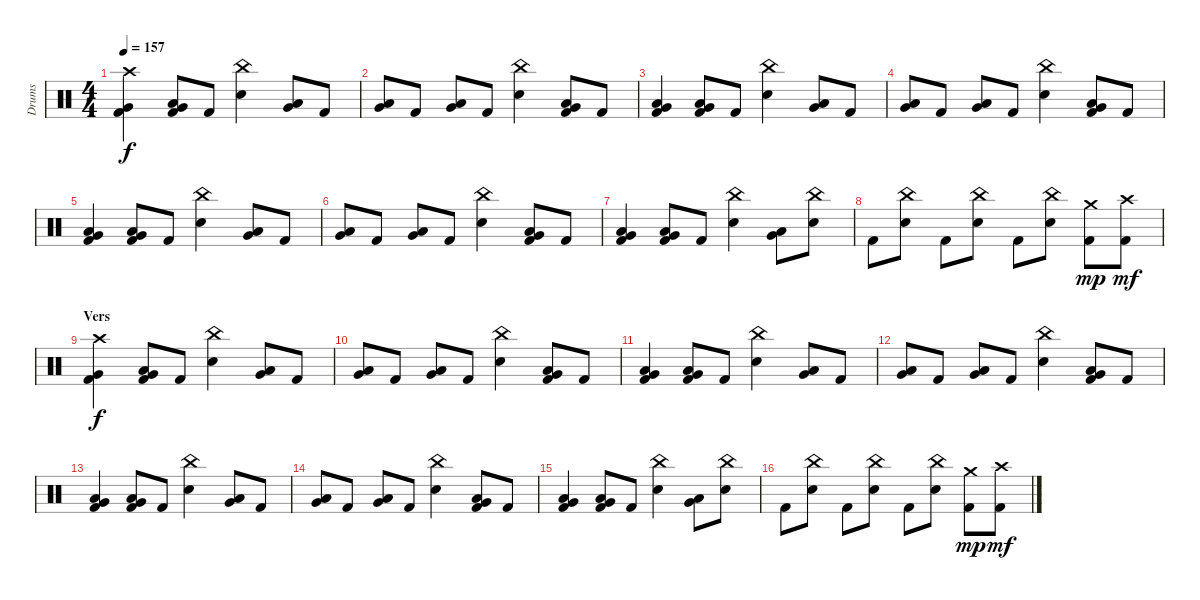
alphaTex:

\track ("Drums" "Drums") {instrument percussion}
\staff {score}
\articulation defaults
\ts (4 4)
\tempo 157
\clef neutral
\ks c
("Crash high (hit)" "Very Low Tom (hit)" "Kick (hit) 2").4{dy f} ("Low Tom (hit)" "Very Low Tom (hit)" "Kick (hit) 2").8 "Kick (hit) 2".8 ("China (hit)" "Electric Snare (hit)").4 ("Low Tom (hit)" "Very Low Tom (hit)").8 "Kick (hit) 2".8 |
("Low Tom (hit)" "Very Low Tom (hit)").8 "Kick (hit) 2".8 ("Low Tom (hit)" "Very Low Tom (hit)").8 "Kick (hit) 2".8 ("China (hit)" "Electric Snare (hit)").4 ("Low Tom (hit)" "Very Low Tom (hit)" "Kick (hit) 2").8 "Kick (hit) 2".8 |
("Low Tom (hit)" "Very Low Tom (hit)" "Kick (hit) 2").4 ("Low Tom (hit)" "Very Low Tom (hit)" "Kick (hit) 2").8 "Kick (hit) 2".8 ("China (hit)" "Electric Snare (hit)").4 ("Low Tom (hit)" "Very Low Tom (hit)").8 "Kick (hit) 2".8 |
("Low Tom (hit)" "Very Low Tom (hit)").8 "Kick (hit) 2".8 ("Low Tom (hit)" "Very Low Tom (hit)").8 "Kick (hit) 2".8 ("China (hit)" "Electric Snare (hit)").4 ("Low Tom (hit)" "Very Low Tom (hit)" "Kick (hit) 2").8 "Kick (hit) 2".8 |
("Low Tom (hit)" "Very Low Tom (hit)" "Kick (hit) 2").4 ("Low Tom (hit)" "Very Low Tom (hit)" "Kick (hit) 2").8 "Kick (hit) 2".8 ("China (hit)" "Electric Snare (hit)").4 ("Low Tom (hit)" "Very Low Tom (hit)").8 "Kick (hit) 2".8 |
("Low Tom (hit)" "Very Low Tom (hit)").8 "Kick (hit) 2".8 ("Low Tom (hit)" "Very Low Tom (hit)").8 "Kick (hit) 2".8 ("China (hit)" "Electric Snare (hit)").4 ("Low Tom (hit)" "Very Low Tom (hit)" "Kick (hit) 2").8 "Kick (hit) 2".8 |
("Low Tom (hit)" "Very Low Tom (hit)" "Kick (hit) 2").4 ("Low Tom (hit)" "Very Low Tom (hit)" "Kick (hit) 2").8 "Kick (hit) 2".8 ("China (hit)" "Electric Snare (hit)").4 ("Low Tom (hit)" "Very Low Tom (hit)").8 ("China (hit)" "Electric Snare (hit)").8 |
"Kick (hit) 2".8 ("China (hit)" "Electric Snare (hit)").8 "Kick (hit) 2".8 ("China (hit)" "Electric Snare (hit)").8 "Kick (hit) 2".8 ("China (hit)" "Electric Snare (hit)").8 ("Crash medium (hit)" "Kick (hit) 2").8{dy mp} ("Crash high (hit)" "Kick (hit) 2").8{dy mf} |
\section ("" "Vers")
("Crash high (hit)" "Very Low Tom (hit)" "Kick (hit) 2").4{dy f} ("Low Tom (hit)" "Very Low Tom (hit)" "Kick (hit) 2").8 "Kick (hit) 2".8 ("China (hit)" "Electric Snare (hit)").4 ("Low Tom (hit)" "Very Low Tom (hit)").8 "Kick (hit) 2".8 |
("Low Tom (hit)" "Very Low Tom (hit)").8 "Kick (hit) 2".8 ("Low Tom (hit)" "Very Low Tom (hit)").8 "Kick (hit) 2".8 ("China (hit)" "Electric Snare (hit)").4 ("Low Tom (hit)" "Very Low Tom (hit)" "Kick (hit) 2").8 "Kick (hit) 2".8 |
("Low Tom (hit)" "Very Low Tom (hit)" "Kick (hit) 2").4 ("Low Tom (hit)" "Very Low Tom (hit)" "Kick (hit) 2").8 "Kick (hit) 2".8 ("China (hit)" "Electric Snare (hit)").4 ("Low Tom (hit)" "Very Low Tom (hit)").8 "Kick (hit) 2".8 |
("Low Tom (hit)" "Very Low Tom (hit)").8 "Kick (hit) 2".8 ("Low Tom (hit)" "Very Low Tom (hit)").8 "Kick (hit) 2".8 ("China (hit)" "Electric Snare (hit)").4 ("Low Tom (hit)" "Very Low Tom (hit)" "Kick (hit) 2").8 "Kick (hit) 2".8 |
("Low Tom (hit)" "Very Low Tom (hit)" "Kick (hit) 2").4 ("Low Tom (hit)" "Very Low Tom (hit)" "Kick (hit) 2").8 "Kick (hit) 2".8 ("China (hit)" "Electric Snare (hit)").4 ("Low Tom (hit)" "Very Low Tom (hit)").8 "Kick (hit) 2".8 |
("Low Tom (hit)" "Very Low Tom (hit)").8 "Kick (hit) 2".8 ("Low Tom (hit)" "Very Low Tom (hit)").8 "Kick (hit) 2".8 ("China (hit)" "Electric Snare (hit)").4 ("Low Tom (hit)" "Very Low Tom (hit)" "Kick (hit) 2").8 "Kick (hit) 2".8 |
("Low Tom (hit)" "Very Low Tom (hit)" "Kick (hit) 2").4 ("Low Tom (hit)" "Very Low Tom (hit)" "Kick (hit) 2").8 "Kick (hit) 2".8 ("China (hit)" "Electric Snare (hit)").4 ("Low Tom (hit)" "Very Low Tom (hit)").8 ("China (hit)" "Electric Snare (hit)").8 |
"Kick (hit) 2".8 ("China (hit)" "Electric Snare (hit)").8 "Kick (hit) 2".8 ("China (hit)" "Electric Snare (hit)").8 "Kick (hit) 2".8 ("China (hit)" "Electric Snare (hit)").8 ("Crash medium (hit)" "Kick (hit) 2").8{dy mp} ("Crash high (hit)" "Kick (hit) 2").8{dy mf}
